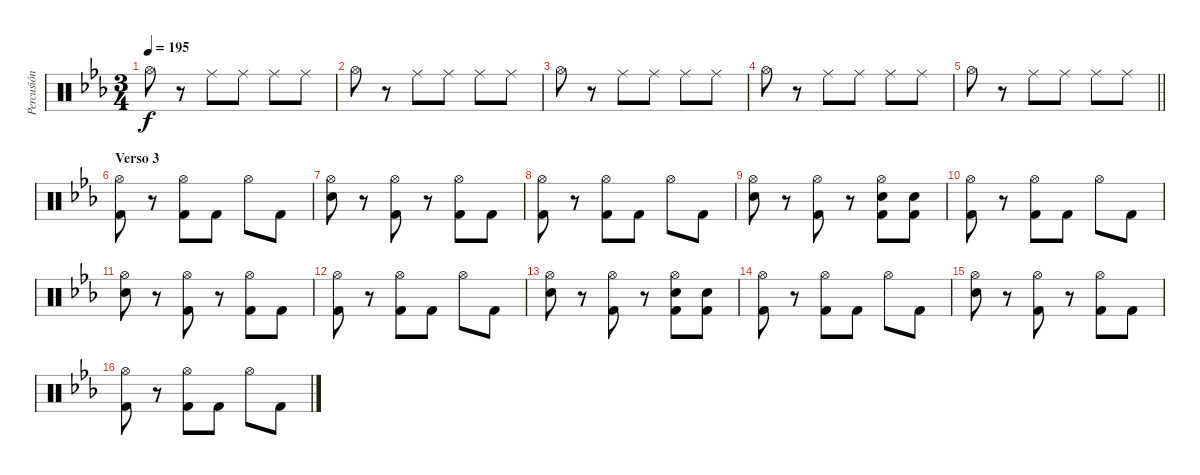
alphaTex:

\track ("Percusión" "Percusión") {instrument percussion}
\staff {score}
\articulation defaults
\ts (3 4)
\tempo 195
\clef neutral
\ks eb "Hi-Hat (open)".8{dy f}
r.8 "Ride (middle)".8 "Ride (middle)".8 "Ride (middle)".8 "Ride (middle)".8 |
"Hi-Hat (open)".8 r.8 "Ride (middle)".8 "Ride (middle)".8 "Ride (middle)".8 "Ride (middle)".8 |
"Hi-Hat (open)".8 r.8 "Ride (middle)".8 "Ride (middle)".8 "Ride (middle)".8 "Ride (middle)".8 |
"Hi-Hat (open)".8 r.8 "Ride (middle)".8 "Ride (middle)".8 "Ride (middle)".8 "Ride (middle)".8 |
\barLineRight lightlight "Hi-Hat (open)".8
r.8 "Ride (middle)".8 "Ride (middle)".8 "Ride (middle)".8 "Ride (middle)".8 |
\section ("" "Verso 3")
("Hi-Hat (open)" "Kick (hit) 2").8 r.8 ("Hi-Hat (open)" "Kick (hit) 2").8 "Kick (hit) 2".8 "Hi-Hat (open)".8 "Kick (hit) 2".8 |
("Hi-Hat (open)" "Snare (hit) 2").8 r.8 ("Hi-Hat (open)" "Kick (hit) 2").8 r.8 ("Hi-Hat (open)" "Kick (hit) 2").8 "Kick (hit) 2".8 |
("Hi-Hat (open)" "Kick (hit) 2").8 r.8 ("Hi-Hat (open)" "Kick (hit) 2").8 "Kick (hit) 2".8 "Hi-Hat (open)".8 "Kick (hit) 2".8 |
("Hi-Hat (open)" "Snare (hit) 2").8 r.8 ("Hi-Hat (open)" "Kick (hit) 2").8 r.8 ("Hi-Hat (open)" "Snare (hit) 2" "Kick (hit) 2").8 ("Snare (hit) 2" "Kick (hit) 2").8 |
("Hi-Hat (open)" "Kick (hit) 2").8 r.8 ("Hi-Hat (open)" "Kick (hit) 2").8 "Kick (hit) 2".8 "Hi-Hat (open)".8 "Kick (hit) 2".8 |
("Hi-Hat (open)" "Snare (hit) 2").8 r.8 ("Hi-Hat (open)" "Kick (hit) 2").8 r.8 ("Hi-Hat (open)" "Kick (hit) 2").8 "Kick (hit) 2".8 |
("Hi-Hat (open)" "Kick (hit) 2").8 r.8 ("Hi-Hat (open)" "Kick (hit) 2").8 "Kick (hit) 2".8 "Hi-Hat (open)".8 "Kick (hit) 2".8 |
("Hi-Hat (open)" "Snare (hit) 2").8 r.8 ("Hi-Hat (open)" "Kick (hit) 2").8 r.8 ("Hi-Hat (open)" "Snare (hit) 2" "Kick (hit) 2").8 ("Snare (hit) 2" "Kick (hit) 2").8 |
("Hi-Hat (open)" "Kick (hit) 2").8 r.8 ("Hi-Hat (open)" "Kick (hit) 2").8 "Kick (hit) 2".8 "Hi-Hat (open)".8 "Kick (hit) 2".8 |
("Hi-Hat (open)" "Snare (hit) 2").8 r.8 ("Hi-Hat (open)" "Kick (hit) 2").8 r.8 ("Hi-Hat (open)" "Kick (hit) 2").8 "Kick (hit) 2".8 |
("Hi-Hat (open)" "Kick (hit) 2").8 r.8 ("Hi-Hat (open)" "Kick (hit) 2").8 "Kick (hit) 2".8 "Hi-Hat (open)".8 "Kick (hit) 2".8
